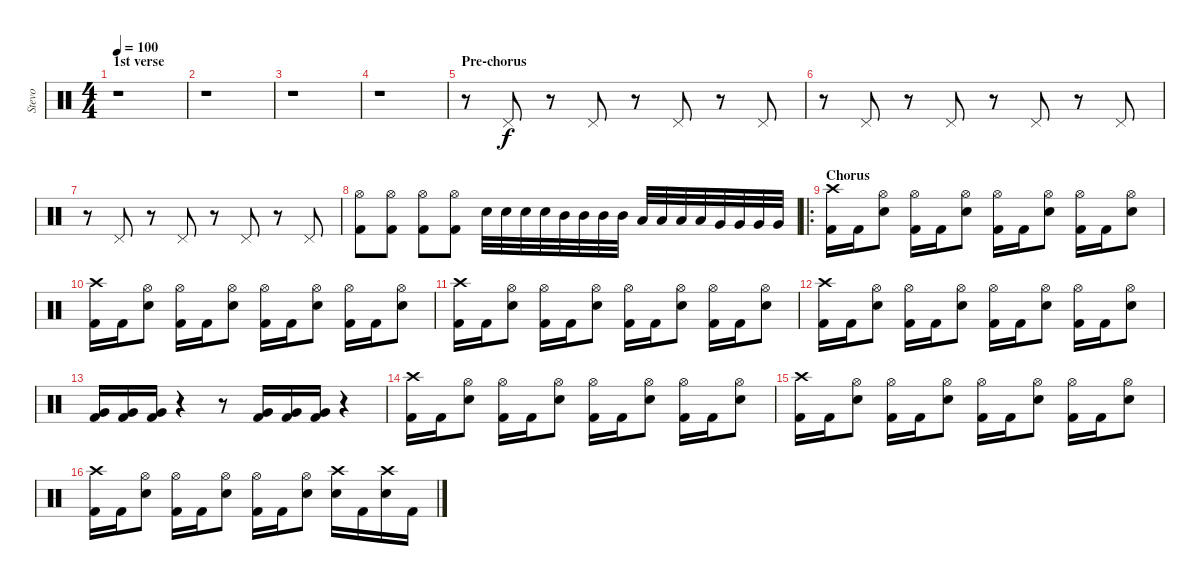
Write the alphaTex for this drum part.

\track ("Stevo" "Stevo") {instrument percussion}
\staff {score}
\articulation defaults
\ts (4 4)
\section ("" "1st verse")
\tempo 100
\clef neutral
\ks c
r.1{dy f} |
r.1 |
r.1 |
r.1 |
\section ("" "Pre-chorus")
r.8 "Pedal Hi-Hat (hit)".8 r.8 "Pedal Hi-Hat (hit)".8 r.8 "Pedal Hi-Hat (hit)".8 r.8 "Pedal Hi-Hat (hit)".8 |
r.8 "Pedal Hi-Hat (hit)".8 r.8 "Pedal Hi-Hat (hit)".8 r.8 "Pedal Hi-Hat (hit)".8 r.8 "Pedal Hi-Hat (hit)".8 |
r.8 "Pedal Hi-Hat (hit)".8 r.8 "Pedal Hi-Hat (hit)".8 r.8 "Pedal Hi-Hat (hit)".8 r.8 "Pedal Hi-Hat (hit)".8 |
("Hi-Hat (open)" "Kick (hit) 2").8 ("Hi-Hat (open)" "Kick (hit) 2").8 ("Hi-Hat (open)" "Kick (hit) 2").8 ("Hi-Hat (open)" "Kick (hit) 2").8 "Electric Snare (hit)".32 "Electric Snare (hit)".32 "Electric Snare (hit)".32 "Electric Snare (hit)".32 "Mid Tom (hit)".32 "Mid Tom (hit)".32 "Mid Tom (hit)".32 "Mid Tom (hit)".32 "Low Tom (hit)".32 "Low Tom (hit)".32 "Low Tom (hit)".32 "Low Tom (hit)".32 "Very Low Tom (hit)".32 "Very Low Tom (hit)".32 "Very Low Tom (hit)".32 "Very Low Tom (hit)".32 |
\ro
\section ("" "Chorus")
("Crash high (hit)" "Kick (hit) 2").16 "Kick (hit) 2".16 ("Hi-Hat (open)" "Electric Snare (hit)").8 ("Hi-Hat (open)" "Kick (hit) 2").16 "Kick (hit) 2".16 ("Hi-Hat (open)" "Electric Snare (hit)").8 ("Hi-Hat (open)" "Kick (hit) 2").16 "Kick (hit) 2".16 ("Hi-Hat (open)" "Electric Snare (hit)").8 ("Hi-Hat (open)" "Kick (hit) 2").16 "Kick (hit) 2".16 ("Hi-Hat (open)" "Electric Snare (hit)").8 |
("Crash high (hit)" "Kick (hit) 2").16 "Kick (hit) 2".16 ("Hi-Hat (open)" "Electric Snare (hit)").8 ("Hi-Hat (open)" "Kick (hit) 2").16 "Kick (hit) 2".16 ("Hi-Hat (open)" "Electric Snare (hit)").8 ("Hi-Hat (open)" "Kick (hit) 2").16 "Kick (hit) 2".16 ("Hi-Hat (open)" "Electric Snare (hit)").8 ("Hi-Hat (open)" "Kick (hit) 2").16 "Kick (hit) 2".16 ("Hi-Hat (open)" "Electric Snare (hit)").8 |
("Crash high (hit)" "Kick (hit) 2").16 "Kick (hit) 2".16 ("Hi-Hat (open)" "Electric Snare (hit)").8 ("Hi-Hat (open)" "Kick (hit) 2").16 "Kick (hit) 2".16 ("Hi-Hat (open)" "Electric Snare (hit)").8 ("Hi-Hat (open)" "Kick (hit) 2").16 "Kick (hit) 2".16 ("Hi-Hat (open)" "Electric Snare (hit)").8 ("Hi-Hat (open)" "Kick (hit) 2").16 "Kick (hit) 2".16 ("Hi-Hat (open)" "Electric Snare (hit)").8 |
("Crash high (hit)" "Kick (hit) 2").16 "Kick (hit) 2".16 ("Hi-Hat (open)" "Electric Snare (hit)").8 ("Hi-Hat (open)" "Kick (hit) 2").16 "Kick (hit) 2".16 ("Hi-Hat (open)" "Electric Snare (hit)").8 ("Hi-Hat (open)" "Kick (hit) 2").16 "Kick (hit) 2".16 ("Hi-Hat (open)" "Electric Snare (hit)").8 ("Hi-Hat (open)" "Kick (hit) 2").16 "Kick (hit) 2".16 ("Hi-Hat (open)" "Electric Snare (hit)").8 |
("Very Low Tom (hit)" "Kick (hit) 2").16 ("Very Low Tom (hit)" "Kick (hit) 2").16 ("Very Low Tom (hit)" "Kick (hit) 2").16 r.4 r.8 ("Very Low Tom (hit)" "Kick (hit) 2").16 ("Very Low Tom (hit)" "Kick (hit) 2").16 ("Very Low Tom (hit)" "Kick (hit) 2").16 r.4 |
("Crash high (hit)" "Kick (hit) 2").16 "Kick (hit) 2".16 ("Hi-Hat (open)" "Electric Snare (hit)").8 ("Hi-Hat (open)" "Kick (hit) 2").16 "Kick (hit) 2".16 ("Hi-Hat (open)" "Electric Snare (hit)").8 ("Hi-Hat (open)" "Kick (hit) 2").16 "Kick (hit) 2".16 ("Hi-Hat (open)" "Electric Snare (hit)").8 ("Hi-Hat (open)" "Kick (hit) 2").16 "Kick (hit) 2".16 ("Hi-Hat (open)" "Electric Snare (hit)").8 |
("Crash high (hit)" "Kick (hit) 2").16 "Kick (hit) 2".16 ("Hi-Hat (open)" "Electric Snare (hit)").8 ("Hi-Hat (open)" "Kick (hit) 2").16 "Kick (hit) 2".16 ("Hi-Hat (open)" "Electric Snare (hit)").8 ("Hi-Hat (open)" "Kick (hit) 2").16 "Kick (hit) 2".16 ("Hi-Hat (open)" "Electric Snare (hit)").8 ("Hi-Hat (open)" "Kick (hit) 2").16 "Kick (hit) 2".16 ("Hi-Hat (open)" "Electric Snare (hit)").8 |
("Crash high (hit)" "Kick (hit) 2").16 "Kick (hit) 2".16 ("Hi-Hat (open)" "Electric Snare (hit)").8 ("Hi-Hat (open)" "Kick (hit) 2").16 "Kick (hit) 2".16 ("Hi-Hat (open)" "Electric Snare (hit)").8 ("Hi-Hat (open)" "Kick (hit) 2").16 "Kick (hit) 2".16 ("Hi-Hat (open)" "Electric Snare (hit)").8 ("Crash high (hit)" "Electric Snare (hit)").16 "Kick (hit) 2".16 ("Crash high (hit)" "Electric Snare (hit)").16 "Kick (hit) 2".16
